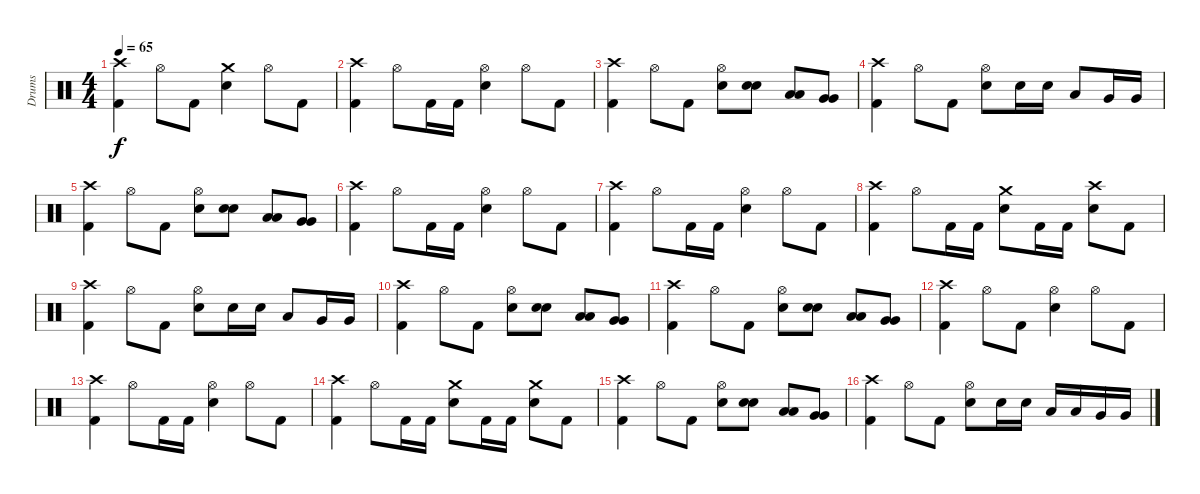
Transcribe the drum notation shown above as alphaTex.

\track ("Drums" "Drums") {instrument percussion}
\staff {score}
\articulation defaults
\ts (4 4)
\tempo 65
\clef neutral
\ks c
("Crash high (hit)" "Kick (hit) 2").4{dy f} "Hi-Hat (open)".8 "Kick (hit) 2".8 ("Crash medium (hit)" "Electric Snare (hit)").4 "Hi-Hat (open)".8 "Kick (hit) 2".8 |
("Crash high (hit)" "Kick (hit) 2").4 "Hi-Hat (open)".8 "Kick (hit) 2".16 "Kick (hit) 2".16 ("Hi-Hat (open)" "Electric Snare (hit)").4 "Hi-Hat (open)".8 "Kick (hit) 2".8 |
("Crash high (hit)" "Kick (hit) 2").4 "Hi-Hat (open)".8 "Kick (hit) 2".8 ("Hi-Hat (open)" "Electric Snare (hit)").8 ("Electric Snare (hit)" "Electric Snare (hit)").8{bu 60} ("Low Tom (hit)" "Low Tom (hit)").8{bu 60} ("Very Low Tom (hit)" "Very Low Tom (hit)").8{bu 60} |
("Crash high (hit)" "Kick (hit) 2").4 "Hi-Hat (open)".8 "Kick (hit) 2".8 ("Hi-Hat (open)" "Electric Snare (hit)").8 "Electric Snare (hit)".16 "Electric Snare (hit)".16 "Low Tom (hit)".8 "Very Low Tom (hit)".16 "Very Low Tom (hit)".16 |
("Crash high (hit)" "Kick (hit) 2").4 "Hi-Hat (open)".8 "Kick (hit) 2".8 ("Hi-Hat (open)" "Electric Snare (hit)").8 ("Electric Snare (hit)" "Electric Snare (hit)").8{bu 60} ("Low Tom (hit)" "Low Tom (hit)").8{bu 60} ("Very Low Tom (hit)" "Very Low Tom (hit)").8{bu 60} |
("Crash high (hit)" "Kick (hit) 2").4 "Hi-Hat (open)".8 "Kick (hit) 2".16 "Kick (hit) 2".16 ("Hi-Hat (open)" "Electric Snare (hit)").4 "Hi-Hat (open)".8 "Kick (hit) 2".8 |
("Crash high (hit)" "Kick (hit) 2").4 "Hi-Hat (open)".8 "Kick (hit) 2".16 "Kick (hit) 2".16 ("Hi-Hat (open)" "Electric Snare (hit)").4 "Hi-Hat (open)".8 "Kick (hit) 2".8 |
("Crash high (hit)" "Kick (hit) 2").4 "Hi-Hat (open)".8 "Kick (hit) 2".16 "Kick (hit) 2".16 ("Crash medium (hit)" "Electric Snare (hit)").8 "Kick (hit) 2".16 "Kick (hit) 2".16 ("Crash high (hit)" "Electric Snare (hit)").8 "Kick (hit) 2".8 |
("Crash high (hit)" "Kick (hit) 2").4 "Hi-Hat (open)".8 "Kick (hit) 2".8 ("Hi-Hat (open)" "Electric Snare (hit)").8 "Electric Snare (hit)".16 "Electric Snare (hit)".16 "Low Tom (hit)".8 "Very Low Tom (hit)".16 "Very Low Tom (hit)".16 |
("Crash high (hit)" "Kick (hit) 2").4 "Hi-Hat (open)".8 "Kick (hit) 2".8 ("Hi-Hat (open)" "Electric Snare (hit)").8 ("Electric Snare (hit)" "Electric Snare (hit)").8{bu 60} ("Low Tom (hit)" "Low Tom (hit)").8{bu 60} ("Very Low Tom (hit)" "Very Low Tom (hit)").8{bu 60} |
("Crash high (hit)" "Kick (hit) 2").4 "Hi-Hat (open)".8 "Kick (hit) 2".8 ("Hi-Hat (open)" "Electric Snare (hit)").8 ("Electric Snare (hit)" "Electric Snare (hit)").8{bu 60} ("Low Tom (hit)" "Low Tom (hit)").8{bu 60} ("Very Low Tom (hit)" "Very Low Tom (hit)").8{bu 60} |
("Crash high (hit)" "Kick (hit) 2").4 "Hi-Hat (open)".8 "Kick (hit) 2".8 ("Hi-Hat (open)" "Electric Snare (hit)").4 "Hi-Hat (open)".8 "Kick (hit) 2".8 |
("Crash high (hit)" "Kick (hit) 2").4 "Hi-Hat (open)".8 "Kick (hit) 2".16 "Kick (hit) 2".16 ("Hi-Hat (open)" "Electric Snare (hit)").4 "Hi-Hat (open)".8 "Kick (hit) 2".8 |
("Crash high (hit)" "Kick (hit) 2").4 "Hi-Hat (open)".8 "Kick (hit) 2".16 "Kick (hit) 2".16 ("Crash medium (hit)" "Electric Snare (hit)").8 "Kick (hit) 2".16 "Kick (hit) 2".16 ("Crash medium (hit)" "Electric Snare (hit)").8 "Kick (hit) 2".8 |
("Crash high (hit)" "Kick (hit) 2").4 "Hi-Hat (open)".8 "Kick (hit) 2".8 ("Hi-Hat (open)" "Electric Snare (hit)").8 ("Electric Snare (hit)" "Electric Snare (hit)").8{bu 60} ("Low Tom (hit)" "Low Tom (hit)").8{bu 60} ("Very Low Tom (hit)" "Very Low Tom (hit)").8{bu 60} |
("Crash high (hit)" "Kick (hit) 2").4 "Hi-Hat (open)".8 "Kick (hit) 2".8 ("Hi-Hat (open)" "Electric Snare (hit)").8 "Electric Snare (hit)".16 "Electric Snare (hit)".16 "Low Tom (hit)".16 "Low Tom (hit)".16 "Very Low Tom (hit)".16 "Very Low Tom (hit)".16
